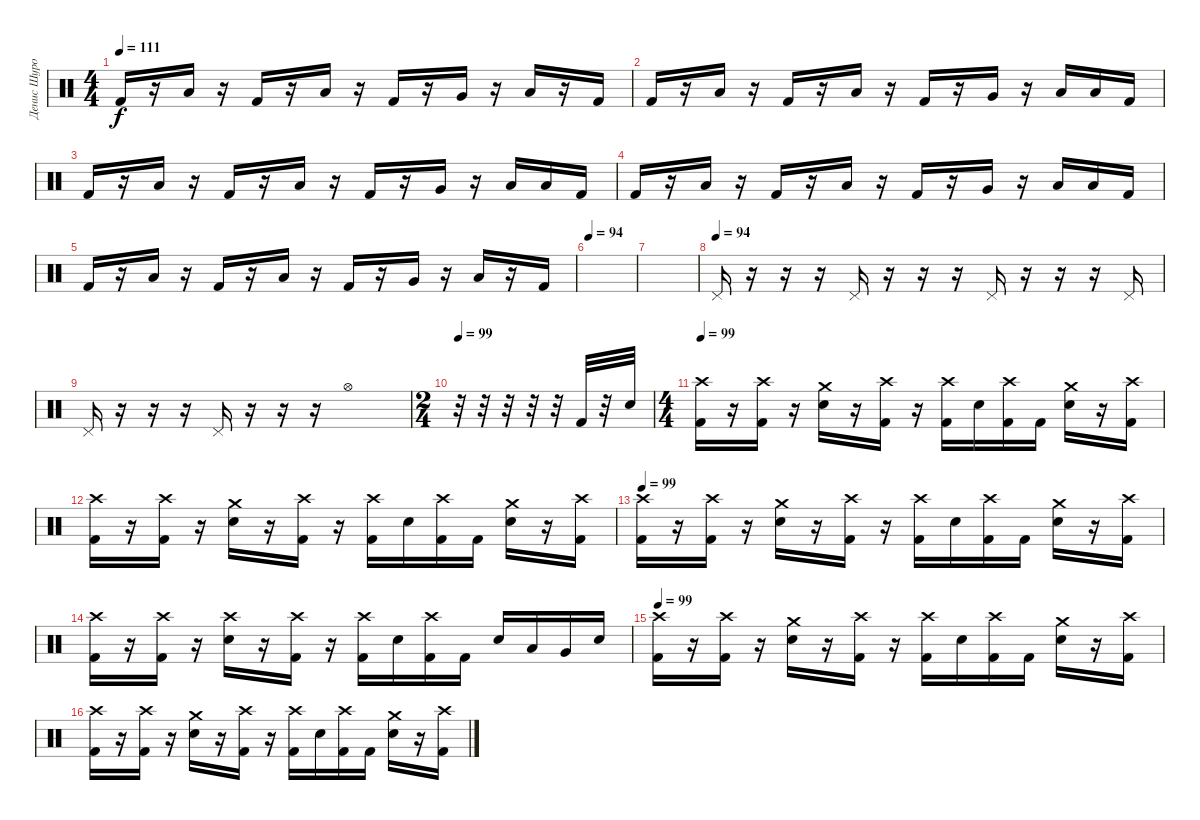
\track ("Денис Шуров" "Денис Шуро") {instrument percussion}
\staff {score}
\articulation defaults
\ts (4 4)
\tempo 111
\clef neutral
\ks c "Kick (hit) 2".16{dy f}
r.16 "Low Tom (hit)".16 r.16 "Kick (hit) 2".16 r.16 "Low Tom (hit)".16 r.16 "Kick (hit) 2".16 r.16 "Very Low Tom (hit)".16 r.16 "Low Tom (hit)".16 r.16 "Kick (hit) 2".16 |
"Kick (hit) 2".16 r.16 "Low Tom (hit)".16 r.16 "Kick (hit) 2".16 r.16 "Low Tom (hit)".16 r.16 "Kick (hit) 2".16 r.16 "Very Low Tom (hit)".16 r.16 "Low Tom (hit)".16 "Low Tom (hit)".16 "Kick (hit) 2".16 |
"Kick (hit) 2".16 r.16 "Low Tom (hit)".16 r.16 "Kick (hit) 2".16 r.16 "Low Tom (hit)".16 r.16 "Kick (hit) 2".16 r.16 "Very Low Tom (hit)".16 r.16 "Low Tom (hit)".16 "Low Tom (hit)".16 "Kick (hit) 2".16 |
"Kick (hit) 2".16 r.16 "Low Tom (hit)".16 r.16 "Kick (hit) 2".16 r.16 "Low Tom (hit)".16 r.16 "Kick (hit) 2".16 r.16 "Very Low Tom (hit)".16 r.16 "Low Tom (hit)".16 "Low Tom (hit)".16 "Kick (hit) 2".16 |
"Kick (hit) 2".16 r.16 "Low Tom (hit)".16 r.16 "Kick (hit) 2".16 r.16 "Low Tom (hit)".16 r.16 "Kick (hit) 2".16 r.16 "Very Low Tom (hit)".16 r.16 "Low Tom (hit)".16 r.16 "Kick (hit) 2".16 |
\tempo 94
|
|
\tempo (94)
"Pedal Hi-Hat (hit)".16 r.16 r.16 r.16 "Pedal Hi-Hat (hit)".16 r.16 r.16 r.16 "Pedal Hi-Hat (hit)".16 r.16 r.16 r.16 "Pedal Hi-Hat (hit)".16 |
"Pedal Hi-Hat (hit)".16 r.16 r.16 r.16 "Pedal Hi-Hat (hit)".16 r.16 r.16 r.16 "Hi-Hat (open)".1 |
\ts (2 4)
\tempo 99
r.32 r.32 r.32 r.32 r.32 "Kick (hit) 2".32 r.32 "Electric Snare (hit)".32 |
\ts (4 4)
\tempo 99
("Crash high (hit)" "Kick (hit) 2").16 r.16 ("Crash high (hit)" "Kick (hit) 2").16 r.16 ("Crash medium (hit)" "Electric Snare (hit)").16 r.16 ("Crash high (hit)" "Kick (hit) 2").16 r.16 ("Crash high (hit)" "Kick (hit) 2").16 "Electric Snare (hit)".16 ("Crash high (hit)" "Kick (hit) 2").16 "Kick (hit) 2".16 ("Crash medium (hit)" "Electric Snare (hit)").16 r.16 ("Crash high (hit)" "Kick (hit) 2").16 |
("Crash high (hit)" "Kick (hit) 2").16 r.16 ("Crash high (hit)" "Kick (hit) 2").16 r.16 ("Crash medium (hit)" "Electric Snare (hit)").16 r.16 ("Crash high (hit)" "Kick (hit) 2").16 r.16 ("Crash high (hit)" "Kick (hit) 2").16 "Electric Snare (hit)".16 ("Crash high (hit)" "Kick (hit) 2").16 "Kick (hit) 2".16 ("Crash medium (hit)" "Electric Snare (hit)").16 r.16 ("Crash high (hit)" "Kick (hit) 2").16 |
\tempo 99
("Crash high (hit)" "Kick (hit) 2").16 r.16 ("Crash high (hit)" "Kick (hit) 2").16 r.16 ("Crash medium (hit)" "Electric Snare (hit)").16 r.16 ("Crash high (hit)" "Kick (hit) 2").16 r.16 ("Crash high (hit)" "Kick (hit) 2").16 "Electric Snare (hit)".16 ("Crash high (hit)" "Kick (hit) 2").16 "Kick (hit) 2".16 ("Crash medium (hit)" "Electric Snare (hit)").16 r.16 ("Crash high (hit)" "Kick (hit) 2").16 |
("Crash high (hit)" "Kick (hit) 2").16 r.16 ("Crash high (hit)" "Kick (hit) 2").16 r.16 ("Crash high (hit)" "Electric Snare (hit)").16 r.16 ("Crash high (hit)" "Kick (hit) 2").16 r.16 ("Crash high (hit)" "Kick (hit) 2").16 "Electric Snare (hit)".16 ("Crash high (hit)" "Kick (hit) 2").16 "Kick (hit) 2".16 "Electric Snare (hit)".16 "Low Tom (hit)".16 "Very Low Tom (hit)".16 "Electric Snare (hit)".16 |
\tempo 99
("Crash high (hit)" "Kick (hit) 2").16 r.16 ("Crash high (hit)" "Kick (hit) 2").16 r.16 ("Crash medium (hit)" "Electric Snare (hit)").16 r.16 ("Crash high (hit)" "Kick (hit) 2").16 r.16 ("Crash high (hit)" "Kick (hit) 2").16 "Electric Snare (hit)".16 ("Crash high (hit)" "Kick (hit) 2").16 "Kick (hit) 2".16 ("Crash medium (hit)" "Electric Snare (hit)").16 r.16 ("Crash high (hit)" "Kick (hit) 2").16 |
("Crash high (hit)" "Kick (hit) 2").16 r.16 ("Crash high (hit)" "Kick (hit) 2").16 r.16 ("Crash medium (hit)" "Electric Snare (hit)").16 r.16 ("Crash high (hit)" "Kick (hit) 2").16 r.16 ("Crash high (hit)" "Kick (hit) 2").16 "Electric Snare (hit)".16 ("Crash high (hit)" "Kick (hit) 2").16 "Kick (hit) 2".16 ("Crash medium (hit)" "Electric Snare (hit)").16 r.16 ("Crash high (hit)" "Kick (hit) 2").16
